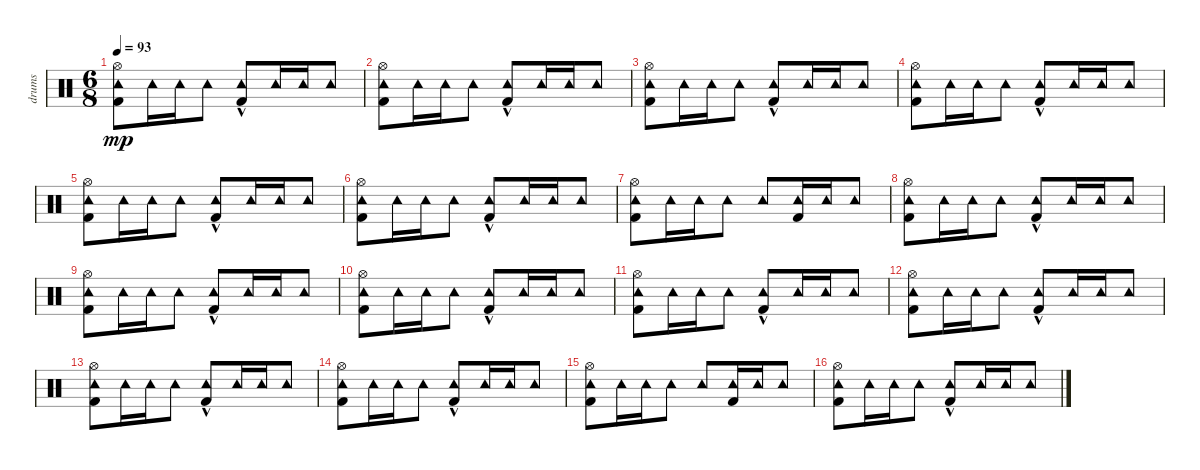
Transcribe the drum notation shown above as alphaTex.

\track ("drums" "drums") {instrument percussion}
\staff {score}
\articulation defaults
\ts (6 8)
\tempo 93
\clef neutral
\ks c
("Tambourine (hit)" "Kick (hit) 2" "Hi-Hat (open)").8{dy mp} "Tambourine (hit)".16 "Tambourine (hit)".16 "Tambourine (hit)".8 ("Tambourine (hit)" "Kick (hit) 2"{hac}).8 "Tambourine (hit)".16 "Tambourine (hit)".16 "Tambourine (hit)".8 |
("Tambourine (hit)" "Kick (hit) 2" "Hi-Hat (open)").8 "Tambourine (hit)".16 "Tambourine (hit)".16 "Tambourine (hit)".8 ("Tambourine (hit)" "Kick (hit) 2"{hac}).8 "Tambourine (hit)".16 "Tambourine (hit)".16 "Tambourine (hit)".8 |
("Tambourine (hit)" "Kick (hit) 2" "Hi-Hat (open)").8 "Tambourine (hit)".16 "Tambourine (hit)".16 "Tambourine (hit)".8 ("Tambourine (hit)" "Kick (hit) 2"{hac}).8 "Tambourine (hit)".16 "Tambourine (hit)".16 "Tambourine (hit)".8 |
("Tambourine (hit)" "Kick (hit) 2" "Hi-Hat (open)").8 "Tambourine (hit)".16 "Tambourine (hit)".16 "Tambourine (hit)".8 ("Tambourine (hit)" "Kick (hit) 2"{hac}).8 "Tambourine (hit)".16 "Tambourine (hit)".16 "Tambourine (hit)".8 |
("Tambourine (hit)" "Kick (hit) 2" "Hi-Hat (open)").8 "Tambourine (hit)".16 "Tambourine (hit)".16 "Tambourine (hit)".8 ("Tambourine (hit)" "Kick (hit) 2"{hac}).8 "Tambourine (hit)".16 "Tambourine (hit)".16 "Tambourine (hit)".8 |
("Tambourine (hit)" "Kick (hit) 2" "Hi-Hat (open)").8 "Tambourine (hit)".16 "Tambourine (hit)".16 "Tambourine (hit)".8 ("Tambourine (hit)" "Kick (hit) 2"{hac}).8 "Tambourine (hit)".16 "Tambourine (hit)".16 "Tambourine (hit)".8 |
("Tambourine (hit)" "Kick (hit) 2" "Hi-Hat (open)").8 "Tambourine (hit)".16 "Tambourine (hit)".16 "Tambourine (hit)".8 "Tambourine (hit)".8 ("Tambourine (hit)" "Kick (hit) 2").16 "Tambourine (hit)".16 "Tambourine (hit)".8 |
("Tambourine (hit)" "Kick (hit) 2" "Hi-Hat (open)").8 "Tambourine (hit)".16 "Tambourine (hit)".16 "Tambourine (hit)".8 ("Tambourine (hit)" "Kick (hit) 2"{hac}).8 "Tambourine (hit)".16 "Tambourine (hit)".16 "Tambourine (hit)".8 |
("Tambourine (hit)" "Kick (hit) 2" "Hi-Hat (open)").8 "Tambourine (hit)".16 "Tambourine (hit)".16 "Tambourine (hit)".8 ("Tambourine (hit)" "Kick (hit) 2"{hac}).8 "Tambourine (hit)".16 "Tambourine (hit)".16 "Tambourine (hit)".8 |
("Tambourine (hit)" "Kick (hit) 2" "Hi-Hat (open)").8 "Tambourine (hit)".16 "Tambourine (hit)".16 "Tambourine (hit)".8 ("Tambourine (hit)" "Kick (hit) 2"{hac}).8 "Tambourine (hit)".16 "Tambourine (hit)".16 "Tambourine (hit)".8 |
("Tambourine (hit)" "Kick (hit) 2" "Hi-Hat (open)").8 "Tambourine (hit)".16 "Tambourine (hit)".16 "Tambourine (hit)".8 ("Tambourine (hit)" "Kick (hit) 2"{hac}).8 "Tambourine (hit)".16 "Tambourine (hit)".16 "Tambourine (hit)".8 |
("Tambourine (hit)" "Kick (hit) 2" "Hi-Hat (open)").8 "Tambourine (hit)".16 "Tambourine (hit)".16 "Tambourine (hit)".8 ("Tambourine (hit)" "Kick (hit) 2"{hac}).8 "Tambourine (hit)".16 "Tambourine (hit)".16 "Tambourine (hit)".8 |
("Tambourine (hit)" "Kick (hit) 2" "Hi-Hat (open)").8 "Tambourine (hit)".16 "Tambourine (hit)".16 "Tambourine (hit)".8 ("Tambourine (hit)" "Kick (hit) 2"{hac}).8 "Tambourine (hit)".16 "Tambourine (hit)".16 "Tambourine (hit)".8 |
("Tambourine (hit)" "Kick (hit) 2" "Hi-Hat (open)").8 "Tambourine (hit)".16 "Tambourine (hit)".16 "Tambourine (hit)".8 ("Tambourine (hit)" "Kick (hit) 2"{hac}).8 "Tambourine (hit)".16 "Tambourine (hit)".16 "Tambourine (hit)".8 |
("Tambourine (hit)" "Kick (hit) 2" "Hi-Hat (open)").8 "Tambourine (hit)".16 "Tambourine (hit)".16 "Tambourine (hit)".8 "Tambourine (hit)".8 ("Tambourine (hit)" "Kick (hit) 2").16 "Tambourine (hit)".16 "Tambourine (hit)".8 |
("Tambourine (hit)" "Kick (hit) 2" "Hi-Hat (open)").8 "Tambourine (hit)".16 "Tambourine (hit)".16 "Tambourine (hit)".8 ("Tambourine (hit)" "Kick (hit) 2"{hac}).8 "Tambourine (hit)".16 "Tambourine (hit)".16 "Tambourine (hit)".8
